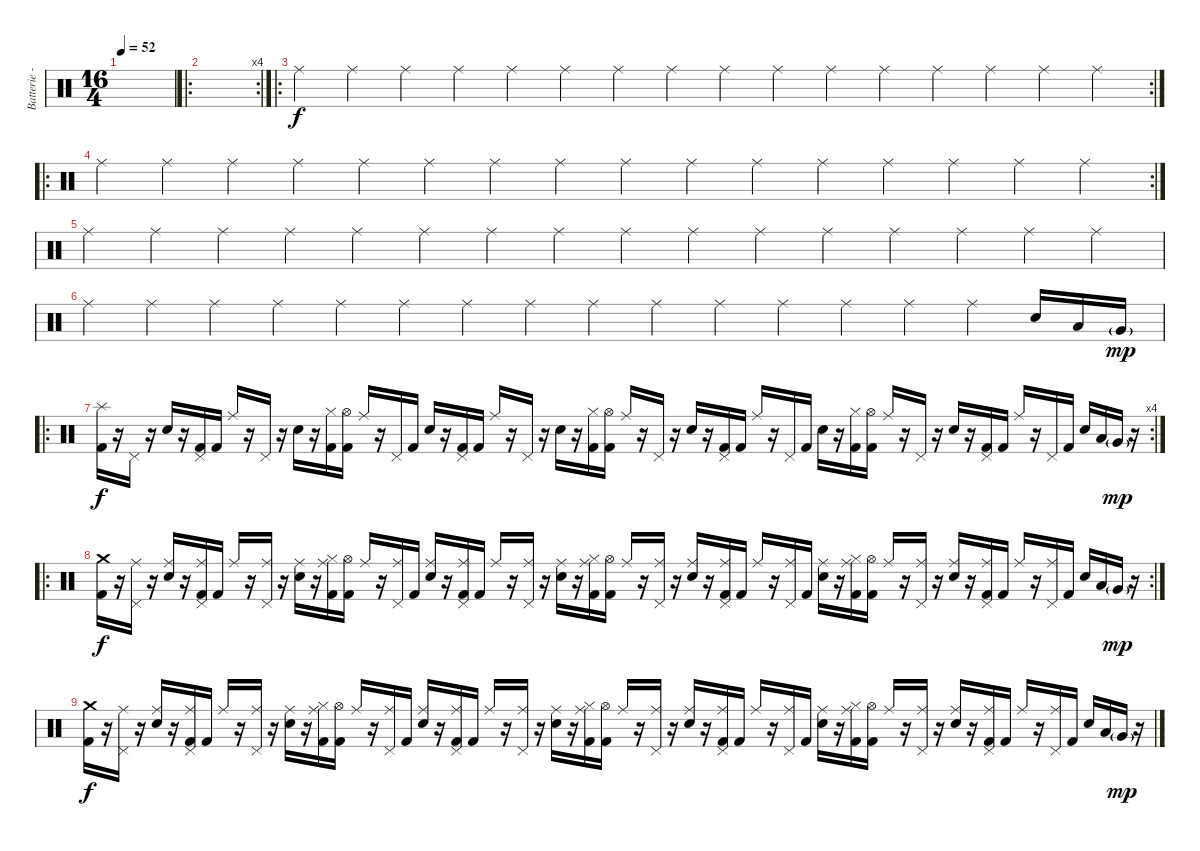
\track ("Batterie - " "Batterie -") {instrument percussion}
\staff {score}
\articulation defaults
\ts (16 4)
\tempo 52
\clef neutral
\ks c
|
\ro
\rc 4
|
\ro
\rc 2 "Ride (middle)".4 "Ride (middle)".4 "Ride (middle)".4 "Ride (middle)".4 "Ride (middle)".4 "Ride (middle)".4 "Ride (middle)".4 "Ride (middle)".4 "Ride (middle)".4 "Ride (middle)".4 "Ride (middle)".4 "Ride (middle)".4 "Ride (middle)".4 "Ride (middle)".4 "Ride (middle)".4 "Ride (middle)".4
|
\ro
\rc 2 "Ride (middle)".4 "Ride (middle)".4 "Ride (middle)".4 "Ride (middle)".4 "Ride (middle)".4 "Ride (middle)".4 "Ride (middle)".4 "Ride (middle)".4 "Ride (middle)".4 "Ride (middle)".4 "Ride (middle)".4 "Ride (middle)".4 "Ride (middle)".4 "Ride (middle)".4 "Ride (middle)".4 "Ride (middle)".4
|
"Ride (middle)".4 "Ride (middle)".4 "Ride (middle)".4 "Ride (middle)".4 "Ride (middle)".4 "Ride (middle)".4 "Ride (middle)".4 "Ride (middle)".4 "Ride (middle)".4 "Ride (middle)".4 "Ride (middle)".4 "Ride (middle)".4 "Ride (middle)".4 "Ride (middle)".4 "Ride (middle)".4 "Ride (middle)".4 |
"Ride (middle)".4 "Ride (middle)".4 "Ride (middle)".4 "Ride (middle)".4 "Ride (middle)".4 "Ride (middle)".4 "Ride (middle)".4 "Ride (middle)".4 "Ride (middle)".4 "Ride (middle)".4 "Ride (middle)".4 "Ride (middle)".4 "Ride (middle)".4 "Ride (middle)".4 "Ride (middle)".4 "Electric Snare (hit)".16 "Low Tom (hit)".16 "Very Low Tom (hit)"{g}.16{dy mp} |
\ro
\rc 4
("Kick (hit) 2" "Splash (hit)").16{dy f} r.16 "Pedal Hi-Hat (hit)".16 r.16 "Electric Snare (hit)".16 r.16 ("Pedal Hi-Hat (hit)" "Kick (hit) 2").16 "Kick (hit) 2".16 "Ride (middle)".16 r.16 "Pedal Hi-Hat (hit)".16 r.16 "Electric Snare (hit)".16 r.16 ("Hi-Hat (closed)" "Kick (hit) 2").16 ("Hi-Hat (open)" "Kick (hit) 2").16 "Ride (middle)".16 r.16 "Pedal Hi-Hat (hit)".16 "Kick (hit) 2".16 "Electric Snare (hit)".16 r.16 ("Pedal Hi-Hat (hit)" "Kick (hit) 2").16 "Kick (hit) 2".16 "Ride (middle)".16 r.16 "Pedal Hi-Hat (hit)".16 r.16 "Electric Snare (hit)".16 r.16 ("Hi-Hat (closed)" "Kick (hit) 2").16 ("Hi-Hat (open)" "Kick (hit) 2").16 "Ride (middle)".16 r.16 "Pedal Hi-Hat (hit)".16 r.16 "Electric Snare (hit)".16 r.16 ("Pedal Hi-Hat (hit)" "Kick (hit) 2").16 "Kick (hit) 2".16 "Ride (middle)".16 r.16 "Pedal Hi-Hat (hit)".16 "Kick (hit) 2".16 "Electric Snare (hit)".16 r.16 ("Hi-Hat (closed)" "Kick (hit) 2").16 ("Hi-Hat (open)" "Kick (hit) 2").16 "Ride (middle)".16 r.16 "Pedal Hi-Hat (hit)".16 r.16 "Electric Snare (hit)".16 r.16 ("Pedal Hi-Hat (hit)" "Kick (hit) 2").16 "Kick (hit) 2".16 "Ride (middle)".16 r.16 "Pedal Hi-Hat (hit)".16 "Kick (hit) 2".16 "Electric Snare (hit)".16 "Low Tom (hit)".16 "Very Low Tom (hit)"{g}.16{dy mp} r.16 |
\ro
\rc 2
("Kick (hit) 2" "Crash medium (hit)").16{dy f} r.16 ("Ride (middle)" "Pedal Hi-Hat (hit)").16 r.16 ("Ride (middle)" "Electric Snare (hit)").16 r.16 ("Ride (middle)" "Pedal Hi-Hat (hit)" "Kick (hit) 2").16 "Kick (hit) 2".16 "Ride (middle)".16 r.16 ("Ride (middle)" "Pedal Hi-Hat (hit)").16 r.16 ("Ride (middle)" "Electric Snare (hit)").16 r.16 ("Ride (middle)" "Hi-Hat (closed)" "Kick (hit) 2").16 ("Hi-Hat (open)" "Kick (hit) 2").16 "Ride (middle)".16 r.16 ("Ride (middle)" "Pedal Hi-Hat (hit)").16 "Kick (hit) 2".16 ("Ride (middle)" "Electric Snare (hit)").16 r.16 ("Ride (middle)" "Pedal Hi-Hat (hit)" "Kick (hit) 2").16 "Kick (hit) 2".16 "Ride (middle)".16 r.16 ("Ride (middle)" "Pedal Hi-Hat (hit)").16 r.16 ("Ride (middle)" "Electric Snare (hit)").16 r.16 ("Ride (middle)" "Hi-Hat (closed)" "Kick (hit) 2").16 ("Hi-Hat (open)" "Kick (hit) 2").16 "Ride (middle)".16 r.16 ("Ride (middle)" "Pedal Hi-Hat (hit)").16 r.16 ("Ride (middle)" "Electric Snare (hit)").16 r.16 ("Ride (middle)" "Pedal Hi-Hat (hit)" "Kick (hit) 2").16 "Kick (hit) 2".16 "Ride (middle)".16 r.16 ("Ride (middle)" "Pedal Hi-Hat (hit)").16 "Kick (hit) 2".16 ("Ride (middle)" "Electric Snare (hit)").16 r.16 ("Ride (middle)" "Hi-Hat (closed)" "Kick (hit) 2").16 ("Hi-Hat (open)" "Kick (hit) 2").16 "Ride (middle)".16 r.16 ("Ride (middle)" "Pedal Hi-Hat (hit)").16 r.16 ("Ride (middle)" "Electric Snare (hit)").16 r.16 ("Ride (middle)" "Pedal Hi-Hat (hit)" "Kick (hit) 2").16 "Kick (hit) 2".16 "Ride (middle)".16 r.16 ("Ride (middle)" "Pedal Hi-Hat (hit)").16 "Kick (hit) 2".16 "Electric Snare (hit)".16 "Low Tom (hit)".16 "Very Low Tom (hit)"{g}.16{dy mp} r.16 |
("Kick (hit) 2" "Crash medium (hit)").16{dy f} r.16 ("Ride (middle)" "Pedal Hi-Hat (hit)").16 r.16 ("Ride (middle)" "Electric Snare (hit)").16 r.16 ("Ride (middle)" "Pedal Hi-Hat (hit)" "Kick (hit) 2").16 "Kick (hit) 2".16 "Ride (middle)".16 r.16 ("Ride (middle)" "Pedal Hi-Hat (hit)").16 r.16 ("Ride (middle)" "Electric Snare (hit)").16 r.16 ("Ride (middle)" "Hi-Hat (closed)" "Kick (hit) 2").16 ("Hi-Hat (open)" "Kick (hit) 2").16 "Ride (middle)".16 r.16 ("Ride (middle)" "Pedal Hi-Hat (hit)").16 "Kick (hit) 2".16 ("Ride (middle)" "Electric Snare (hit)").16 r.16 ("Ride (middle)" "Pedal Hi-Hat (hit)" "Kick (hit) 2").16 "Kick (hit) 2".16 "Ride (middle)".16 r.16 ("Ride (middle)" "Pedal Hi-Hat (hit)").16 r.16 ("Ride (middle)" "Electric Snare (hit)").16 r.16 ("Ride (middle)" "Hi-Hat (closed)" "Kick (hit) 2").16 ("Hi-Hat (open)" "Kick (hit) 2").16 "Ride (middle)".16 r.16 ("Ride (middle)" "Pedal Hi-Hat (hit)").16 r.16 ("Ride (middle)" "Electric Snare (hit)").16 r.16 ("Ride (middle)" "Pedal Hi-Hat (hit)" "Kick (hit) 2").16 "Kick (hit) 2".16 "Ride (middle)".16 r.16 ("Ride (middle)" "Pedal Hi-Hat (hit)").16 "Kick (hit) 2".16 ("Ride (middle)" "Electric Snare (hit)").16 r.16 ("Ride (middle)" "Hi-Hat (closed)" "Kick (hit) 2").16 ("Hi-Hat (open)" "Kick (hit) 2").16 "Ride (middle)".16 r.16 ("Ride (middle)" "Pedal Hi-Hat (hit)").16 r.16 ("Ride (middle)" "Electric Snare (hit)").16 r.16 ("Ride (middle)" "Pedal Hi-Hat (hit)" "Kick (hit) 2").16 "Kick (hit) 2".16 "Ride (middle)".16 r.16 ("Ride (middle)" "Pedal Hi-Hat (hit)").16 "Kick (hit) 2".16 "Electric Snare (hit)".16 "Low Tom (hit)".16 "Very Low Tom (hit)"{g}.16{dy mp} r.16
